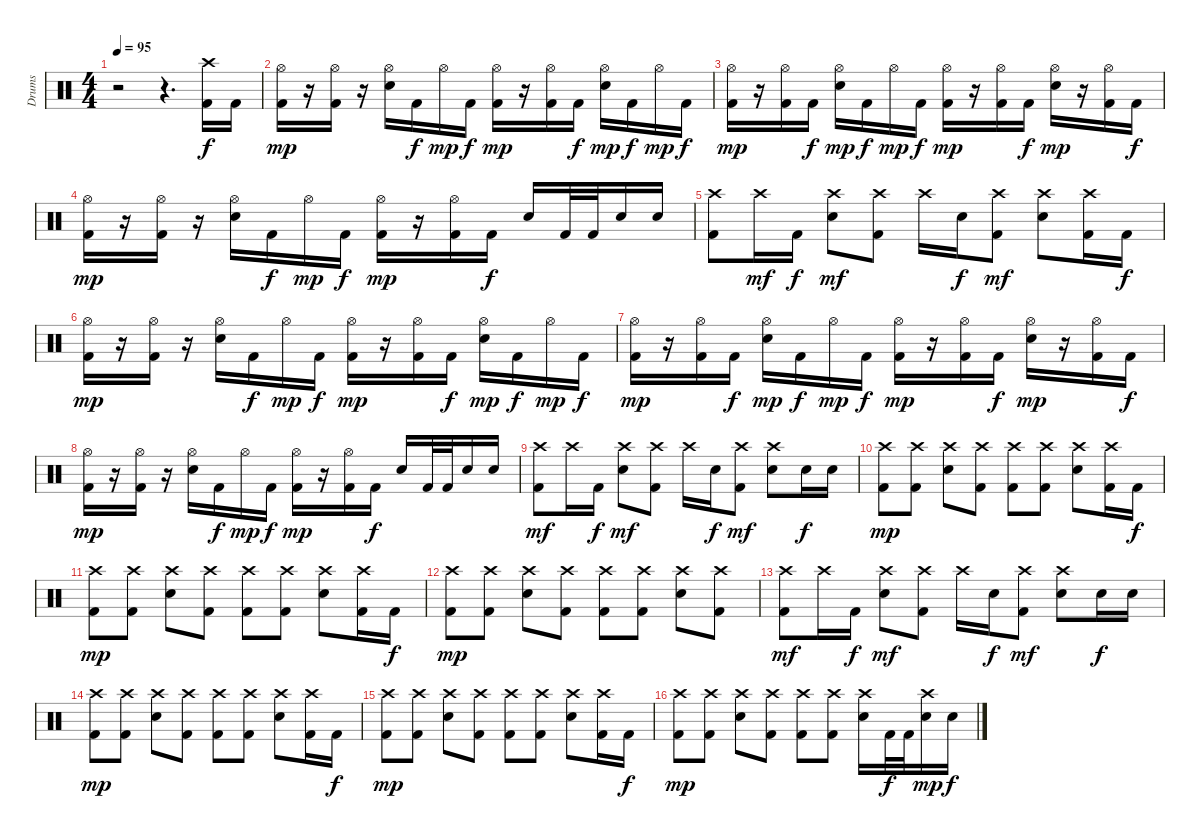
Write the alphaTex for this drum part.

\track ("Drums" "Drums") {instrument percussion}
\staff {score}
\articulation defaults
\ts (4 4)
\tempo 95
\clef neutral
\ks c
r.2{dy f} r.4{d} ("Crash high (hit)" "Kick (hit) 2").16 "Kick (hit) 2".16 |
("Hi-Hat (open)" "Kick (hit) 2").16{dy mp} r.16 ("Hi-Hat (open)" "Kick (hit) 2").16 r.16 ("Hi-Hat (open)" "Electric Snare (hit)").16 "Kick (hit) 2".16{dy f} "Hi-Hat (open)".16{dy mp} "Kick (hit) 2".16{dy f} ("Hi-Hat (open)" "Kick (hit) 2").16{dy mp} r.16 ("Hi-Hat (open)" "Kick (hit) 2").16 "Kick (hit) 2".16{dy f} ("Hi-Hat (open)" "Electric Snare (hit)").16{dy mp} "Kick (hit) 2".16{dy f} "Hi-Hat (open)".16{dy mp} "Kick (hit) 2".16{dy f} |
("Hi-Hat (open)" "Kick (hit) 2").16{dy mp} r.16 ("Hi-Hat (open)" "Kick (hit) 2").16 "Kick (hit) 2".16{dy f} ("Hi-Hat (open)" "Electric Snare (hit)").16{dy mp} "Kick (hit) 2".16{dy f} "Hi-Hat (open)".16{dy mp} "Kick (hit) 2".16{dy f} ("Hi-Hat (open)" "Kick (hit) 2").16{dy mp} r.16 ("Hi-Hat (open)" "Kick (hit) 2").16 "Kick (hit) 2".16{dy f} ("Hi-Hat (open)" "Electric Snare (hit)").16{dy mp} r.16 ("Hi-Hat (open)" "Kick (hit) 2").16 "Kick (hit) 2".16{dy f} |
("Hi-Hat (open)" "Kick (hit) 2").16{dy mp} r.16 ("Hi-Hat (open)" "Kick (hit) 2").16 r.16 ("Hi-Hat (open)" "Electric Snare (hit)").16 "Kick (hit) 2".16{dy f} "Hi-Hat (open)".16{dy mp} "Kick (hit) 2".16{dy f} ("Hi-Hat (open)" "Kick (hit) 2").16{dy mp} r.16 ("Hi-Hat (open)" "Kick (hit) 2").16 "Kick (hit) 2".16{dy f} "Electric Snare (hit)".16 "Kick (hit) 2".32 "Kick (hit) 2".32 "Electric Snare (hit)".16 "Electric Snare (hit)".16 |
("Crash high (hit)" "Kick (hit) 2").8 "Crash high (hit)".16{dy mf} "Kick (hit) 2".16{dy f} ("Crash high (hit)" "Electric Snare (hit)").8{dy mf} ("Crash high (hit)" "Kick (hit) 2").8 "Crash high (hit)".16 "Electric Snare (hit)".16{dy f} ("Crash high (hit)" "Kick (hit) 2").8{dy mf} ("Crash high (hit)" "Electric Snare (hit)").8 ("Crash high (hit)" "Kick (hit) 2").16 "Kick (hit) 2".16{dy f} |
("Hi-Hat (open)" "Kick (hit) 2").16{dy mp} r.16 ("Hi-Hat (open)" "Kick (hit) 2").16 r.16 ("Hi-Hat (open)" "Electric Snare (hit)").16 "Kick (hit) 2".16{dy f} "Hi-Hat (open)".16{dy mp} "Kick (hit) 2".16{dy f} ("Hi-Hat (open)" "Kick (hit) 2").16{dy mp} r.16 ("Hi-Hat (open)" "Kick (hit) 2").16 "Kick (hit) 2".16{dy f} ("Hi-Hat (open)" "Electric Snare (hit)").16{dy mp} "Kick (hit) 2".16{dy f} "Hi-Hat (open)".16{dy mp} "Kick (hit) 2".16{dy f} |
("Hi-Hat (open)" "Kick (hit) 2").16{dy mp} r.16 ("Hi-Hat (open)" "Kick (hit) 2").16 "Kick (hit) 2".16{dy f} ("Hi-Hat (open)" "Electric Snare (hit)").16{dy mp} "Kick (hit) 2".16{dy f} "Hi-Hat (open)".16{dy mp} "Kick (hit) 2".16{dy f} ("Hi-Hat (open)" "Kick (hit) 2").16{dy mp} r.16 ("Hi-Hat (open)" "Kick (hit) 2").16 "Kick (hit) 2".16{dy f} ("Hi-Hat (open)" "Electric Snare (hit)").16{dy mp} r.16 ("Hi-Hat (open)" "Kick (hit) 2").16 "Kick (hit) 2".16{dy f} |
("Hi-Hat (open)" "Kick (hit) 2").16{dy mp} r.16 ("Hi-Hat (open)" "Kick (hit) 2").16 r.16 ("Hi-Hat (open)" "Electric Snare (hit)").16 "Kick (hit) 2".16{dy f} "Hi-Hat (open)".16{dy mp} "Kick (hit) 2".16{dy f} ("Hi-Hat (open)" "Kick (hit) 2").16{dy mp} r.16 ("Hi-Hat (open)" "Kick (hit) 2").16 "Kick (hit) 2".16{dy f} "Electric Snare (hit)".16 "Kick (hit) 2".32 "Kick (hit) 2".32 "Electric Snare (hit)".16 "Electric Snare (hit)".16 |
("Crash high (hit)" "Kick (hit) 2").8{dy mf} "Crash high (hit)".16 "Kick (hit) 2".16{dy f} ("Crash high (hit)" "Electric Snare (hit)").8{dy mf} ("Crash high (hit)" "Kick (hit) 2").8 "Crash high (hit)".16 "Electric Snare (hit)".16{dy f} ("Crash high (hit)" "Kick (hit) 2").8{dy mf} ("Crash high (hit)" "Electric Snare (hit)").8 "Electric Snare (hit)".16{dy f} "Electric Snare (hit)".16 |
("Crash high (hit)" "Kick (hit) 2").8{dy mp} ("Crash high (hit)" "Kick (hit) 2").8 ("Crash high (hit)" "Electric Snare (hit)").8 ("Crash high (hit)" "Kick (hit) 2").8 ("Crash high (hit)" "Kick (hit) 2").8 ("Crash high (hit)" "Kick (hit) 2").8 ("Crash high (hit)" "Electric Snare (hit)").8 ("Crash high (hit)" "Kick (hit) 2").16 "Kick (hit) 2".16{dy f} |
("Crash high (hit)" "Kick (hit) 2").8{dy mp} ("Crash high (hit)" "Kick (hit) 2").8 ("Crash high (hit)" "Electric Snare (hit)").8 ("Crash high (hit)" "Kick (hit) 2").8 ("Crash high (hit)" "Kick (hit) 2").8 ("Crash high (hit)" "Kick (hit) 2").8 ("Crash high (hit)" "Electric Snare (hit)").8 ("Crash high (hit)" "Kick (hit) 2").16 "Kick (hit) 2".16{dy f} |
("Crash high (hit)" "Kick (hit) 2").8{dy mp} ("Crash high (hit)" "Kick (hit) 2").8 ("Crash high (hit)" "Electric Snare (hit)").8 ("Crash high (hit)" "Kick (hit) 2").8 ("Crash high (hit)" "Kick (hit) 2").8 ("Crash high (hit)" "Kick (hit) 2").8 ("Crash high (hit)" "Electric Snare (hit)").8 ("Crash high (hit)" "Kick (hit) 2").8 |
("Crash high (hit)" "Kick (hit) 2").8{dy mf} "Crash high (hit)".16 "Kick (hit) 2".16{dy f} ("Crash high (hit)" "Electric Snare (hit)").8{dy mf} ("Crash high (hit)" "Kick (hit) 2").8 "Crash high (hit)".16 "Electric Snare (hit)".16{dy f} ("Crash high (hit)" "Kick (hit) 2").8{dy mf} ("Crash high (hit)" "Electric Snare (hit)").8 "Electric Snare (hit)".16{dy f} "Electric Snare (hit)".16 |
("Crash high (hit)" "Kick (hit) 2").8{dy mp} ("Crash high (hit)" "Kick (hit) 2").8 ("Crash high (hit)" "Electric Snare (hit)").8 ("Crash high (hit)" "Kick (hit) 2").8 ("Crash high (hit)" "Kick (hit) 2").8 ("Crash high (hit)" "Kick (hit) 2").8 ("Crash high (hit)" "Electric Snare (hit)").8 ("Crash high (hit)" "Kick (hit) 2").16 "Kick (hit) 2".16{dy f} |
("Crash high (hit)" "Kick (hit) 2").8{dy mp} ("Crash high (hit)" "Kick (hit) 2").8 ("Crash high (hit)" "Electric Snare (hit)").8 ("Crash high (hit)" "Kick (hit) 2").8 ("Crash high (hit)" "Kick (hit) 2").8 ("Crash high (hit)" "Kick (hit) 2").8 ("Crash high (hit)" "Electric Snare (hit)").8 ("Crash high (hit)" "Kick (hit) 2").16 "Kick (hit) 2".16{dy f} |
("Crash high (hit)" "Kick (hit) 2").8{dy mp} ("Crash high (hit)" "Kick (hit) 2").8 ("Crash high (hit)" "Electric Snare (hit)").8 ("Crash high (hit)" "Kick (hit) 2").8 ("Crash high (hit)" "Kick (hit) 2").8 ("Crash high (hit)" "Kick (hit) 2").8 ("Crash high (hit)" "Electric Snare (hit)").16 "Kick (hit) 2".32{dy f} "Kick (hit) 2".32 ("Crash high (hit)" "Electric Snare (hit)").16{dy mp} "Electric Snare (hit)".16{dy f}
